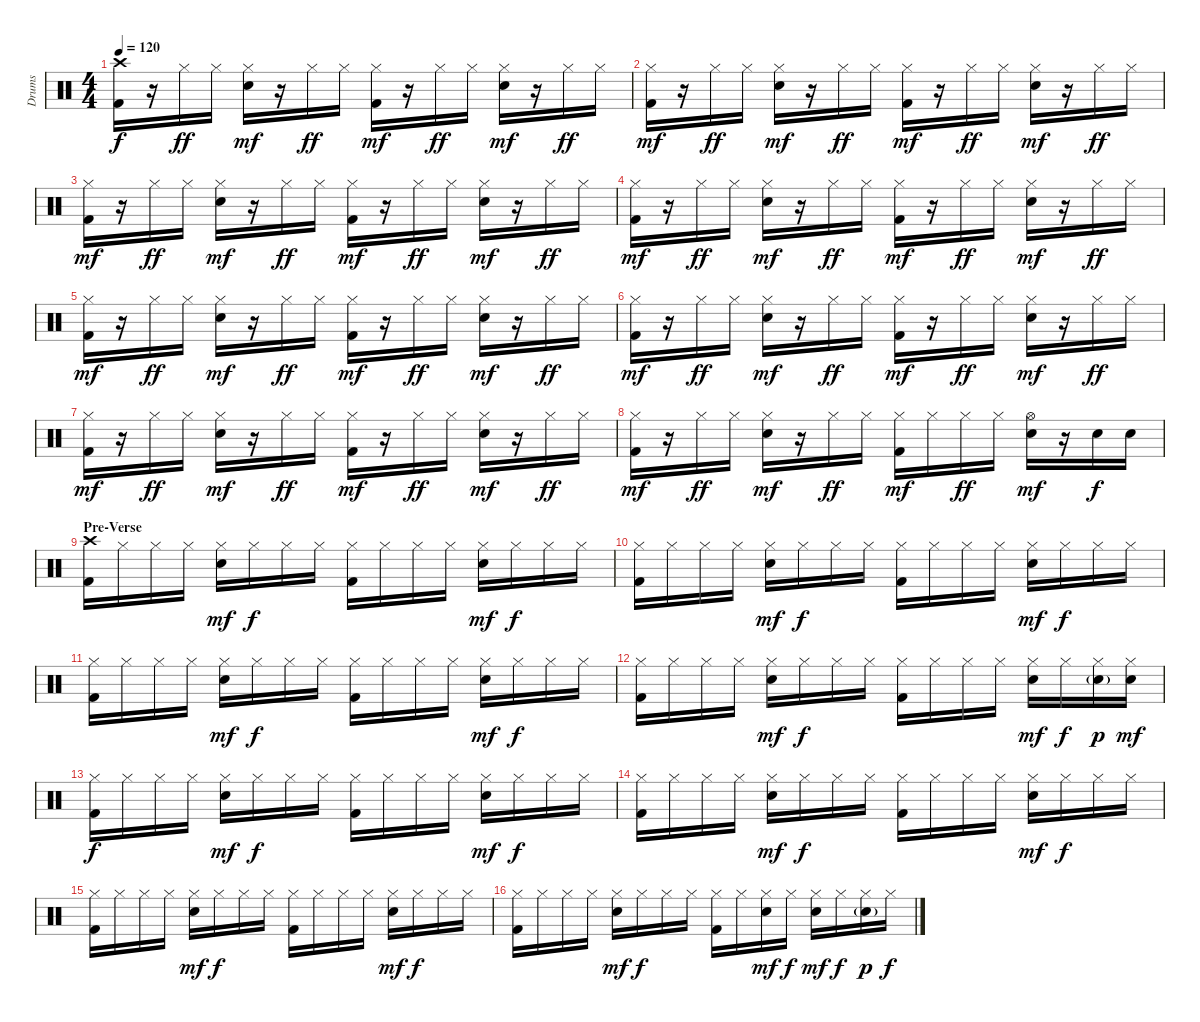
\track ("Drums" "Drums") {instrument percussion}
\staff {score}
\articulation defaults
\ts (4 4)
\tempo 120
\clef neutral
\ks c
("Crash high (hit)" "Kick (hit) 2").16{dy f} r.16 "Hi-Hat (closed)".16{dy ff} "Hi-Hat (closed)".16 ("Hi-Hat (closed)" "Electric Snare (hit)").16{dy mf} r.16 "Hi-Hat (closed)".16{dy ff} "Hi-Hat (closed)".16 ("Hi-Hat (closed)" "Kick (hit) 2").16{dy mf} r.16 "Hi-Hat (closed)".16{dy ff} "Hi-Hat (closed)".16 ("Hi-Hat (closed)" "Electric Snare (hit)").16{dy mf} r.16 "Hi-Hat (closed)".16{dy ff} "Hi-Hat (closed)".16 |
("Hi-Hat (closed)" "Kick (hit) 2").16{dy mf} r.16 "Hi-Hat (closed)".16{dy ff} "Hi-Hat (closed)".16 ("Hi-Hat (closed)" "Electric Snare (hit)").16{dy mf} r.16 "Hi-Hat (closed)".16{dy ff} "Hi-Hat (closed)".16 ("Hi-Hat (closed)" "Kick (hit) 2").16{dy mf} r.16 "Hi-Hat (closed)".16{dy ff} "Hi-Hat (closed)".16 ("Hi-Hat (closed)" "Electric Snare (hit)").16{dy mf} r.16 "Hi-Hat (closed)".16{dy ff} "Hi-Hat (closed)".16 |
("Hi-Hat (closed)" "Kick (hit) 2").16{dy mf} r.16 "Hi-Hat (closed)".16{dy ff} "Hi-Hat (closed)".16 ("Hi-Hat (closed)" "Electric Snare (hit)").16{dy mf} r.16 "Hi-Hat (closed)".16{dy ff} "Hi-Hat (closed)".16 ("Hi-Hat (closed)" "Kick (hit) 2").16{dy mf} r.16 "Hi-Hat (closed)".16{dy ff} "Hi-Hat (closed)".16 ("Hi-Hat (closed)" "Electric Snare (hit)").16{dy mf} r.16 "Hi-Hat (closed)".16{dy ff} "Hi-Hat (closed)".16 |
("Hi-Hat (closed)" "Kick (hit) 2").16{dy mf} r.16 "Hi-Hat (closed)".16{dy ff} "Hi-Hat (closed)".16 ("Hi-Hat (closed)" "Electric Snare (hit)").16{dy mf} r.16 "Hi-Hat (closed)".16{dy ff} "Hi-Hat (closed)".16 ("Hi-Hat (closed)" "Kick (hit) 2").16{dy mf} r.16 "Hi-Hat (closed)".16{dy ff} "Hi-Hat (closed)".16 ("Hi-Hat (closed)" "Electric Snare (hit)").16{dy mf} r.16 "Hi-Hat (closed)".16{dy ff} "Hi-Hat (closed)".16 |
("Hi-Hat (closed)" "Kick (hit) 2").16{dy mf} r.16 "Hi-Hat (closed)".16{dy ff} "Hi-Hat (closed)".16 ("Hi-Hat (closed)" "Electric Snare (hit)").16{dy mf} r.16 "Hi-Hat (closed)".16{dy ff} "Hi-Hat (closed)".16 ("Hi-Hat (closed)" "Kick (hit) 2").16{dy mf} r.16 "Hi-Hat (closed)".16{dy ff} "Hi-Hat (closed)".16 ("Hi-Hat (closed)" "Electric Snare (hit)").16{dy mf} r.16 "Hi-Hat (closed)".16{dy ff} "Hi-Hat (closed)".16 |
("Hi-Hat (closed)" "Kick (hit) 2").16{dy mf} r.16 "Hi-Hat (closed)".16{dy ff} "Hi-Hat (closed)".16 ("Hi-Hat (closed)" "Electric Snare (hit)").16{dy mf} r.16 "Hi-Hat (closed)".16{dy ff} "Hi-Hat (closed)".16 ("Hi-Hat (closed)" "Kick (hit) 2").16{dy mf} r.16 "Hi-Hat (closed)".16{dy ff} "Hi-Hat (closed)".16 ("Hi-Hat (closed)" "Electric Snare (hit)").16{dy mf} r.16 "Hi-Hat (closed)".16{dy ff} "Hi-Hat (closed)".16 |
("Hi-Hat (closed)" "Kick (hit) 2").16{dy mf} r.16 "Hi-Hat (closed)".16{dy ff} "Hi-Hat (closed)".16 ("Hi-Hat (closed)" "Electric Snare (hit)").16{dy mf} r.16 "Hi-Hat (closed)".16{dy ff} "Hi-Hat (closed)".16 ("Hi-Hat (closed)" "Kick (hit) 2").16{dy mf} r.16 "Hi-Hat (closed)".16{dy ff} "Hi-Hat (closed)".16 ("Hi-Hat (closed)" "Electric Snare (hit)").16{dy mf} r.16 "Hi-Hat (closed)".16{dy ff} "Hi-Hat (closed)".16 |
("Hi-Hat (closed)" "Kick (hit) 2").16{dy mf} r.16 "Hi-Hat (closed)".16{dy ff} "Hi-Hat (closed)".16 ("Hi-Hat (closed)" "Electric Snare (hit)").16{dy mf} r.16 "Hi-Hat (closed)".16{dy ff} "Hi-Hat (closed)".16 ("Hi-Hat (closed)" "Kick (hit) 2").16{dy mf} "Hi-Hat (closed)".16 "Hi-Hat (closed)".16{dy ff} "Hi-Hat (closed)".16 ("Hi-Hat (open)" "Electric Snare (hit)").16{dy mf} r.16 "Electric Snare (hit)".16{dy f} "Electric Snare (hit)".16 |
\section ("" "Pre-Verse")
("Crash high (hit)" "Kick (hit) 2").16 "Hi-Hat (closed)".16 "Hi-Hat (closed)".16 "Hi-Hat (closed)".16 ("Hi-Hat (closed)" "Electric Snare (hit)").16{dy mf} "Hi-Hat (closed)".16{dy f} "Hi-Hat (closed)".16 "Hi-Hat (closed)".16 ("Hi-Hat (closed)" "Kick (hit) 2").16 "Hi-Hat (closed)".16 "Hi-Hat (closed)".16 "Hi-Hat (closed)".16 ("Hi-Hat (closed)" "Electric Snare (hit)").16{dy mf} "Hi-Hat (closed)".16{dy f} "Hi-Hat (closed)".16 "Hi-Hat (closed)".16 |
("Hi-Hat (closed)" "Kick (hit) 2").16 "Hi-Hat (closed)".16 "Hi-Hat (closed)".16 "Hi-Hat (closed)".16 ("Hi-Hat (closed)" "Electric Snare (hit)").16{dy mf} "Hi-Hat (closed)".16{dy f} "Hi-Hat (closed)".16 "Hi-Hat (closed)".16 ("Hi-Hat (closed)" "Kick (hit) 2").16 "Hi-Hat (closed)".16 "Hi-Hat (closed)".16 "Hi-Hat (closed)".16 ("Hi-Hat (closed)" "Electric Snare (hit)").16{dy mf} "Hi-Hat (closed)".16{dy f} "Hi-Hat (closed)".16 "Hi-Hat (closed)".16 |
("Hi-Hat (closed)" "Kick (hit) 2").16 "Hi-Hat (closed)".16 "Hi-Hat (closed)".16 "Hi-Hat (closed)".16 ("Hi-Hat (closed)" "Electric Snare (hit)").16{dy mf} "Hi-Hat (closed)".16{dy f} "Hi-Hat (closed)".16 "Hi-Hat (closed)".16 ("Hi-Hat (closed)" "Kick (hit) 2").16 "Hi-Hat (closed)".16 "Hi-Hat (closed)".16 "Hi-Hat (closed)".16 ("Hi-Hat (closed)" "Electric Snare (hit)").16{dy mf} "Hi-Hat (closed)".16{dy f} "Hi-Hat (closed)".16 "Hi-Hat (closed)".16 |
("Hi-Hat (closed)" "Kick (hit) 2").16 "Hi-Hat (closed)".16 "Hi-Hat (closed)".16 "Hi-Hat (closed)".16 ("Hi-Hat (closed)" "Electric Snare (hit)").16{dy mf} "Hi-Hat (closed)".16{dy f} "Hi-Hat (closed)".16 "Hi-Hat (closed)".16 ("Hi-Hat (closed)" "Kick (hit) 2").16 "Hi-Hat (closed)".16 "Hi-Hat (closed)".16 "Hi-Hat (closed)".16 ("Hi-Hat (closed)" "Electric Snare (hit)").16{dy mf} "Hi-Hat (closed)".16{dy f} ("Hi-Hat (closed)" "Electric Snare (hit)"{g}).16{dy p} ("Hi-Hat (closed)" "Electric Snare (hit)").16{dy mf} |
("Hi-Hat (closed)" "Kick (hit) 2").16{dy f} "Hi-Hat (closed)".16 "Hi-Hat (closed)".16 "Hi-Hat (closed)".16 ("Hi-Hat (closed)" "Electric Snare (hit)").16{dy mf} "Hi-Hat (closed)".16{dy f} "Hi-Hat (closed)".16 "Hi-Hat (closed)".16 ("Hi-Hat (closed)" "Kick (hit) 2").16 "Hi-Hat (closed)".16 "Hi-Hat (closed)".16 "Hi-Hat (closed)".16 ("Hi-Hat (closed)" "Electric Snare (hit)").16{dy mf} "Hi-Hat (closed)".16{dy f} "Hi-Hat (closed)".16 "Hi-Hat (closed)".16 |
("Hi-Hat (closed)" "Kick (hit) 2").16 "Hi-Hat (closed)".16 "Hi-Hat (closed)".16 "Hi-Hat (closed)".16 ("Hi-Hat (closed)" "Electric Snare (hit)").16{dy mf} "Hi-Hat (closed)".16{dy f} "Hi-Hat (closed)".16 "Hi-Hat (closed)".16 ("Hi-Hat (closed)" "Kick (hit) 2").16 "Hi-Hat (closed)".16 "Hi-Hat (closed)".16 "Hi-Hat (closed)".16 ("Hi-Hat (closed)" "Electric Snare (hit)").16{dy mf} "Hi-Hat (closed)".16{dy f} "Hi-Hat (closed)".16 "Hi-Hat (closed)".16 |
("Hi-Hat (closed)" "Kick (hit) 2").16 "Hi-Hat (closed)".16 "Hi-Hat (closed)".16 "Hi-Hat (closed)".16 ("Hi-Hat (closed)" "Electric Snare (hit)").16{dy mf} "Hi-Hat (closed)".16{dy f} "Hi-Hat (closed)".16 "Hi-Hat (closed)".16 ("Hi-Hat (closed)" "Kick (hit) 2").16 "Hi-Hat (closed)".16 "Hi-Hat (closed)".16 "Hi-Hat (closed)".16 ("Hi-Hat (closed)" "Electric Snare (hit)").16{dy mf} "Hi-Hat (closed)".16{dy f} "Hi-Hat (closed)".16 "Hi-Hat (closed)".16 |
("Hi-Hat (closed)" "Kick (hit) 2").16 "Hi-Hat (closed)".16 "Hi-Hat (closed)".16 "Hi-Hat (closed)".16 ("Hi-Hat (closed)" "Electric Snare (hit)").16{dy mf} "Hi-Hat (closed)".16{dy f} "Hi-Hat (closed)".16 "Hi-Hat (closed)".16 ("Hi-Hat (closed)" "Kick (hit) 2").16 "Hi-Hat (closed)".16 ("Hi-Hat (closed)" "Electric Snare (hit)").16{dy mf} "Hi-Hat (closed)".16{dy f} ("Hi-Hat (closed)" "Electric Snare (hit)").16{dy mf} "Hi-Hat (closed)".16{dy f} ("Hi-Hat (closed)" "Electric Snare (hit)"{g}).16{dy p} "Hi-Hat (closed)".16{dy f}
